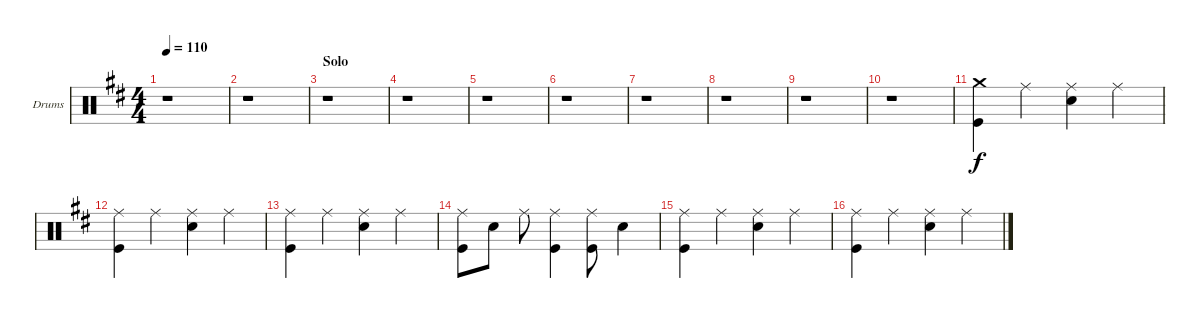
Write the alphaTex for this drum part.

\bracketExtendMode groupsimilarinstruments
\firstSystemTrackNameOrientation horizontal
\otherSystemsTrackNameOrientation horizontal
\track ("Drums" "Drums") {instrument percussion}
\staff {score}
\articulation defaults
\ts (4 4)
\scale
0.311258
\tempo 110
\accidentals auto
\clef neutral
\ottava regular
\simile none
\scale
0.47032
\ks d
r.1{dy f} |
\scale
0.397351
\scale
0.26484 r.1 |
\section ("" "Solo")
\scale
0.291391
\scale
0.26484 r.1 |
\scale
0.425
\scale
0.333333 r.1 |
\scale
0.295833
\scale
0.333333 r.1 |
\scale
0.279167
\scale
0.333333 r.1 |
\scale
0.271493
\scale
0.333333 r.1 |
\scale
0.101056
\scale
0.333333 r.1 |
\scale
0.627451
\scale
0.333333 r.1 |
\scale
0.30838
\scale
0.333333 r.1 |
\scale
0.612291
\scale
0.333333 ("Kick (hit)" "Crash medium (hit)").4 "Ride (middle)".4 ("Ride (middle)" "Snare (hit) 2").4 "Ride (middle)".4 |
\scale
0.0793296
\scale
0.333333 ("Ride (middle)" "Kick (hit)").4 "Ride (middle)".4 ("Ride (middle)" "Snare (hit) 2").4 "Ride (middle)".4 |
\scale
0.591304
\scale
0.351351 ("Ride (middle)" "Kick (hit)").4 "Ride (middle)".4 ("Ride (middle)" "Snare (hit) 2").4 "Ride (middle)".4 |
\scale
0.12
\scale
0.324324 ("Ride (middle)" "Kick (hit)").8 "Snare (hit) 2".8 "Ride (middle)".8 ("Ride (middle)" "Kick (hit)").4 ("Ride (middle)" "Kick (hit)").8 "Snare (hit) 2".4 |
\scale
0.288696
\scale
0.324324 ("Ride (middle)" "Kick (hit)").4 "Ride (middle)".4 ("Ride (middle)" "Snare (hit) 2").4 "Ride (middle)".4 |
\scale
0.227273
\scale
0.390244 ("Ride (middle)" "Kick (hit)").4 "Ride (middle)".4 ("Ride (middle)" "Snare (hit) 2").4 "Ride (middle)".4
